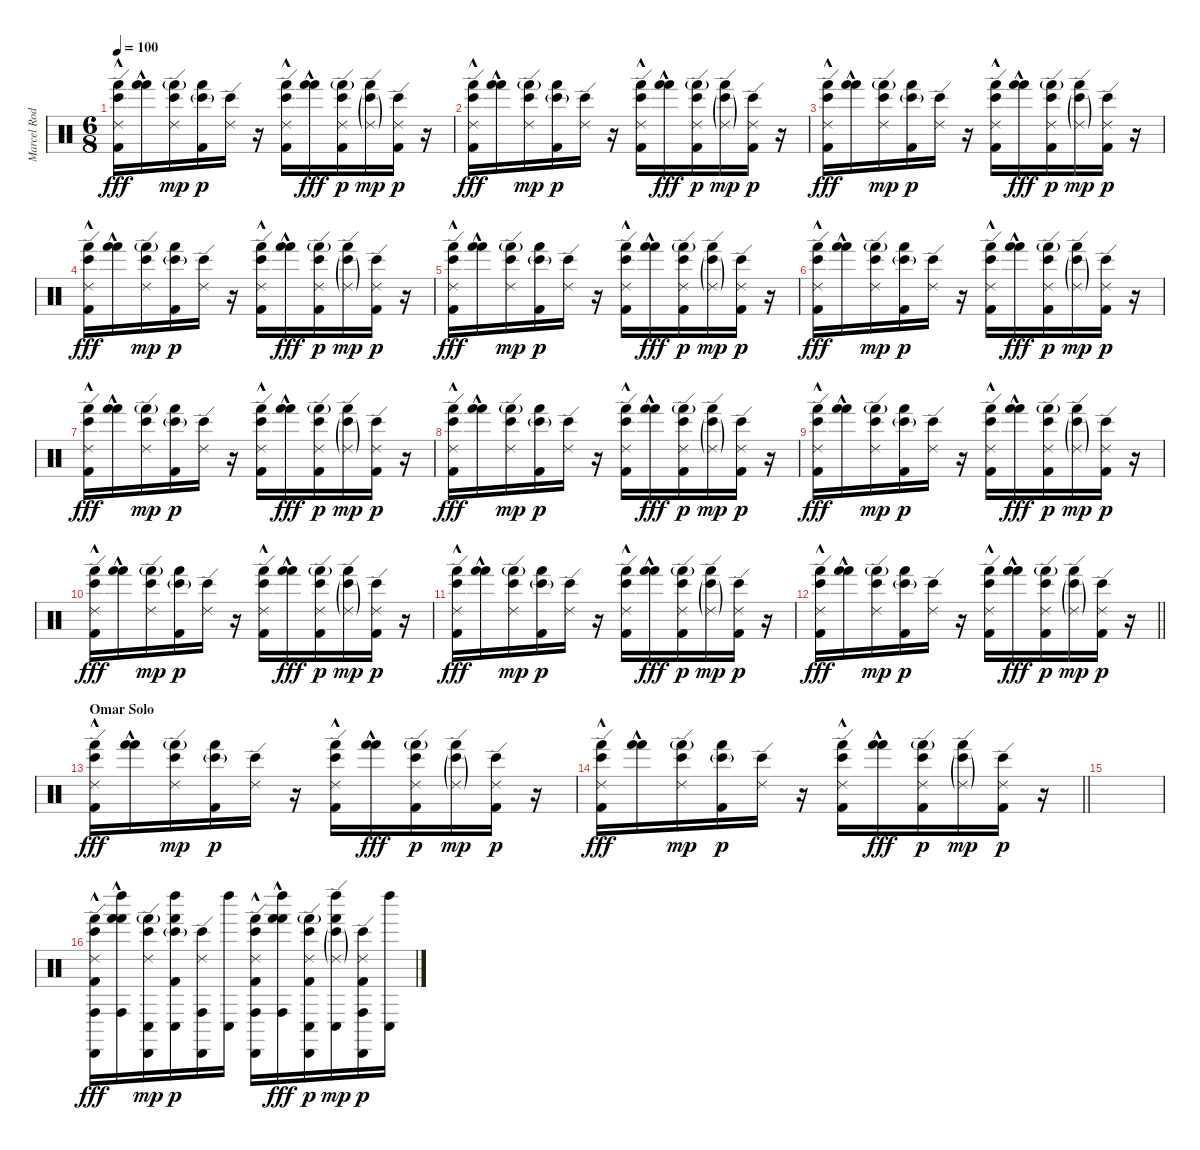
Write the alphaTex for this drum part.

\track ("Marcel Rodriguez & Thomas Pridgen" "Marcel Rod") {instrument percussion}
\staff {score}
\articulation defaults
\ts (6 8)
\tempo 100
\clef neutral
\ks c
("Ride (edge) 2" "Bongo High (hit)" "Hand (hit)"{hac} "Kick (hit) 2").16{dy fff} ("Hand (hit)" "Hand (hit)"{hac}).16 ("Ride (edge) 2" "Bongo High (hit)" "Hand (hit)"{g}).16{dy mp} ("Hand (hit)" "Bongo High (hit)"{g} "Kick (hit) 2").16{dy p} ("Ride (edge) 2" "Bongo High (hit)").16 r.16 ("Ride (edge) 2" "Bongo High (hit)" "Hand (hit)"{hac} "Kick (hit) 2").16 ("Hand (hit)" "Hand (hit)"{hac}).16{dy fff} ("Ride (edge) 2" "Bongo High (hit)" "Hand (hit)"{g} "Kick (hit) 2").16{dy p} ("Ride (edge) 2"{g} "Hand (hit)" "Bongo High (hit)"{g}).16{dy mp} ("Ride (edge) 2" "Bongo High (hit)" "Kick (hit) 2").16{dy p} r.16 |
("Ride (edge) 2" "Bongo High (hit)" "Hand (hit)"{hac} "Kick (hit) 2").16{dy fff} ("Hand (hit)" "Hand (hit)"{hac}).16 ("Ride (edge) 2" "Bongo High (hit)" "Hand (hit)"{g}).16{dy mp} ("Hand (hit)" "Bongo High (hit)"{g} "Kick (hit) 2").16{dy p} ("Ride (edge) 2" "Bongo High (hit)").16 r.16 ("Ride (edge) 2" "Bongo High (hit)" "Hand (hit)"{hac} "Kick (hit) 2").16 ("Hand (hit)" "Hand (hit)"{hac}).16{dy fff} ("Ride (edge) 2" "Bongo High (hit)" "Hand (hit)"{g} "Kick (hit) 2").16{dy p} ("Ride (edge) 2"{g} "Hand (hit)" "Bongo High (hit)"{g}).16{dy mp} ("Ride (edge) 2" "Bongo High (hit)" "Kick (hit) 2").16{dy p} r.16 |
("Ride (edge) 2" "Bongo High (hit)" "Hand (hit)"{hac} "Kick (hit) 2").16{dy fff} ("Hand (hit)" "Hand (hit)"{hac}).16 ("Ride (edge) 2" "Bongo High (hit)" "Hand (hit)"{g}).16{dy mp} ("Hand (hit)" "Bongo High (hit)"{g} "Kick (hit) 2").16{dy p} ("Ride (edge) 2" "Bongo High (hit)").16 r.16 ("Ride (edge) 2" "Bongo High (hit)" "Hand (hit)"{hac} "Kick (hit) 2").16 ("Hand (hit)" "Hand (hit)"{hac}).16{dy fff} ("Ride (edge) 2" "Bongo High (hit)" "Hand (hit)"{g} "Kick (hit) 2").16{dy p} ("Ride (edge) 2"{g} "Hand (hit)" "Bongo High (hit)"{g}).16{dy mp} ("Ride (edge) 2" "Bongo High (hit)" "Kick (hit) 2").16{dy p} r.16 |
("Ride (edge) 2" "Bongo High (hit)" "Hand (hit)"{hac} "Kick (hit) 2").16{dy fff} ("Hand (hit)" "Hand (hit)"{hac}).16 ("Ride (edge) 2" "Bongo High (hit)" "Hand (hit)"{g}).16{dy mp} ("Hand (hit)" "Bongo High (hit)"{g} "Kick (hit) 2").16{dy p} ("Ride (edge) 2" "Bongo High (hit)").16 r.16 ("Ride (edge) 2" "Bongo High (hit)" "Hand (hit)"{hac} "Kick (hit) 2").16 ("Hand (hit)" "Hand (hit)"{hac}).16{dy fff} ("Ride (edge) 2" "Bongo High (hit)" "Hand (hit)"{g} "Kick (hit) 2").16{dy p} ("Ride (edge) 2"{g} "Hand (hit)" "Bongo High (hit)"{g}).16{dy mp} ("Ride (edge) 2" "Bongo High (hit)" "Kick (hit) 2").16{dy p} r.16 |
("Ride (edge) 2" "Bongo High (hit)" "Hand (hit)"{hac} "Kick (hit) 2").16{dy fff} ("Hand (hit)" "Hand (hit)"{hac}).16 ("Ride (edge) 2" "Bongo High (hit)" "Hand (hit)"{g}).16{dy mp} ("Hand (hit)" "Bongo High (hit)"{g} "Kick (hit) 2").16{dy p} ("Ride (edge) 2" "Bongo High (hit)").16 r.16 ("Ride (edge) 2" "Bongo High (hit)" "Hand (hit)"{hac} "Kick (hit) 2").16 ("Hand (hit)" "Hand (hit)"{hac}).16{dy fff} ("Ride (edge) 2" "Bongo High (hit)" "Hand (hit)"{g} "Kick (hit) 2").16{dy p} ("Ride (edge) 2"{g} "Hand (hit)" "Bongo High (hit)"{g}).16{dy mp} ("Ride (edge) 2" "Bongo High (hit)" "Kick (hit) 2").16{dy p} r.16 |
("Ride (edge) 2" "Bongo High (hit)" "Hand (hit)"{hac} "Kick (hit) 2").16{dy fff} ("Hand (hit)" "Hand (hit)"{hac}).16 ("Ride (edge) 2" "Bongo High (hit)" "Hand (hit)"{g}).16{dy mp} ("Hand (hit)" "Bongo High (hit)"{g} "Kick (hit) 2").16{dy p} ("Ride (edge) 2" "Bongo High (hit)").16 r.16 ("Ride (edge) 2" "Bongo High (hit)" "Hand (hit)"{hac} "Kick (hit) 2").16 ("Hand (hit)" "Hand (hit)"{hac}).16{dy fff} ("Ride (edge) 2" "Bongo High (hit)" "Hand (hit)"{g} "Kick (hit) 2").16{dy p} ("Ride (edge) 2"{g} "Hand (hit)" "Bongo High (hit)"{g}).16{dy mp} ("Ride (edge) 2" "Bongo High (hit)" "Kick (hit) 2").16{dy p} r.16 |
("Ride (edge) 2" "Bongo High (hit)" "Hand (hit)"{hac} "Kick (hit) 2").16{dy fff} ("Hand (hit)" "Hand (hit)"{hac}).16 ("Ride (edge) 2" "Bongo High (hit)" "Hand (hit)"{g}).16{dy mp} ("Hand (hit)" "Bongo High (hit)"{g} "Kick (hit) 2").16{dy p} ("Ride (edge) 2" "Bongo High (hit)").16 r.16 ("Ride (edge) 2" "Bongo High (hit)" "Hand (hit)"{hac} "Kick (hit) 2").16 ("Hand (hit)" "Hand (hit)"{hac}).16{dy fff} ("Ride (edge) 2" "Bongo High (hit)" "Hand (hit)"{g} "Kick (hit) 2").16{dy p} ("Ride (edge) 2"{g} "Hand (hit)" "Bongo High (hit)"{g}).16{dy mp} ("Ride (edge) 2" "Bongo High (hit)" "Kick (hit) 2").16{dy p} r.16 |
("Ride (edge) 2" "Bongo High (hit)" "Hand (hit)"{hac} "Kick (hit) 2").16{dy fff} ("Hand (hit)" "Hand (hit)"{hac}).16 ("Ride (edge) 2" "Bongo High (hit)" "Hand (hit)"{g}).16{dy mp} ("Hand (hit)" "Bongo High (hit)"{g} "Kick (hit) 2").16{dy p} ("Ride (edge) 2" "Bongo High (hit)").16 r.16 ("Ride (edge) 2" "Bongo High (hit)" "Hand (hit)"{hac} "Kick (hit) 2").16 ("Hand (hit)" "Hand (hit)"{hac}).16{dy fff} ("Ride (edge) 2" "Bongo High (hit)" "Hand (hit)"{g} "Kick (hit) 2").16{dy p} ("Ride (edge) 2"{g} "Hand (hit)" "Bongo High (hit)"{g}).16{dy mp} ("Ride (edge) 2" "Bongo High (hit)" "Kick (hit) 2").16{dy p} r.16 |
("Ride (edge) 2" "Bongo High (hit)" "Hand (hit)"{hac} "Kick (hit) 2").16{dy fff} ("Hand (hit)" "Hand (hit)"{hac}).16 ("Ride (edge) 2" "Bongo High (hit)" "Hand (hit)"{g}).16{dy mp} ("Hand (hit)" "Bongo High (hit)"{g} "Kick (hit) 2").16{dy p} ("Ride (edge) 2" "Bongo High (hit)").16 r.16 ("Ride (edge) 2" "Bongo High (hit)" "Hand (hit)"{hac} "Kick (hit) 2").16 ("Hand (hit)" "Hand (hit)"{hac}).16{dy fff} ("Ride (edge) 2" "Bongo High (hit)" "Hand (hit)"{g} "Kick (hit) 2").16{dy p} ("Ride (edge) 2"{g} "Hand (hit)" "Bongo High (hit)"{g}).16{dy mp} ("Ride (edge) 2" "Bongo High (hit)" "Kick (hit) 2").16{dy p} r.16 |
("Ride (edge) 2" "Bongo High (hit)" "Hand (hit)"{hac} "Kick (hit) 2").16{dy fff} ("Hand (hit)" "Hand (hit)"{hac}).16 ("Ride (edge) 2" "Bongo High (hit)" "Hand (hit)"{g}).16{dy mp} ("Hand (hit)" "Bongo High (hit)"{g} "Kick (hit) 2").16{dy p} ("Ride (edge) 2" "Bongo High (hit)").16 r.16 ("Ride (edge) 2" "Bongo High (hit)" "Hand (hit)"{hac} "Kick (hit) 2").16 ("Hand (hit)" "Hand (hit)"{hac}).16{dy fff} ("Ride (edge) 2" "Bongo High (hit)" "Hand (hit)"{g} "Kick (hit) 2").16{dy p} ("Ride (edge) 2"{g} "Hand (hit)" "Bongo High (hit)"{g}).16{dy mp} ("Ride (edge) 2" "Bongo High (hit)" "Kick (hit) 2").16{dy p} r.16 |
("Ride (edge) 2" "Bongo High (hit)" "Hand (hit)"{hac} "Kick (hit) 2").16{dy fff} ("Hand (hit)" "Hand (hit)"{hac}).16 ("Ride (edge) 2" "Bongo High (hit)" "Hand (hit)"{g}).16{dy mp} ("Hand (hit)" "Bongo High (hit)"{g} "Kick (hit) 2").16{dy p} ("Ride (edge) 2" "Bongo High (hit)").16 r.16 ("Ride (edge) 2" "Bongo High (hit)" "Hand (hit)"{hac} "Kick (hit) 2").16 ("Hand (hit)" "Hand (hit)"{hac}).16{dy fff} ("Ride (edge) 2" "Bongo High (hit)" "Hand (hit)"{g} "Kick (hit) 2").16{dy p} ("Ride (edge) 2"{g} "Hand (hit)" "Bongo High (hit)"{g}).16{dy mp} ("Ride (edge) 2" "Bongo High (hit)" "Kick (hit) 2").16{dy p} r.16 |
\barLineRight lightlight
("Ride (edge) 2" "Bongo High (hit)" "Hand (hit)"{hac} "Kick (hit) 2").16{dy fff} ("Hand (hit)" "Hand (hit)"{hac}).16 ("Ride (edge) 2" "Bongo High (hit)" "Hand (hit)"{g}).16{dy mp} ("Hand (hit)" "Bongo High (hit)"{g} "Kick (hit) 2").16{dy p} ("Ride (edge) 2" "Bongo High (hit)").16 r.16 ("Ride (edge) 2" "Bongo High (hit)" "Hand (hit)"{hac} "Kick (hit) 2").16 ("Hand (hit)" "Hand (hit)"{hac}).16{dy fff} ("Ride (edge) 2" "Bongo High (hit)" "Hand (hit)"{g} "Kick (hit) 2").16{dy p} ("Ride (edge) 2"{g} "Hand (hit)" "Bongo High (hit)"{g}).16{dy mp} ("Ride (edge) 2" "Bongo High (hit)" "Kick (hit) 2").16{dy p} r.16 |
\section ("" "Omar Solo")
("Ride (edge) 2" "Bongo High (hit)" "Hand (hit)"{hac} "Kick (hit) 2").16{dy fff} ("Hand (hit)" "Hand (hit)"{hac}).16 ("Ride (edge) 2" "Bongo High (hit)" "Hand (hit)"{g}).16{dy mp} ("Hand (hit)" "Bongo High (hit)"{g} "Kick (hit) 2").16{dy p} ("Ride (edge) 2" "Bongo High (hit)").16 r.16 ("Ride (edge) 2" "Bongo High (hit)" "Hand (hit)"{hac} "Kick (hit) 2").16 ("Hand (hit)" "Hand (hit)"{hac}).16{dy fff} ("Ride (edge) 2" "Bongo High (hit)" "Hand (hit)"{g} "Kick (hit) 2").16{dy p} ("Ride (edge) 2"{g} "Hand (hit)" "Bongo High (hit)"{g}).16{dy mp} ("Ride (edge) 2" "Bongo High (hit)" "Kick (hit) 2").16{dy p} r.16 |
\barLineRight lightlight
("Ride (edge) 2" "Bongo High (hit)" "Hand (hit)"{hac} "Kick (hit) 2").16{dy fff} ("Hand (hit)" "Hand (hit)"{hac}).16 ("Ride (edge) 2" "Bongo High (hit)" "Hand (hit)"{g}).16{dy mp} ("Hand (hit)" "Bongo High (hit)"{g} "Kick (hit) 2").16{dy p} ("Ride (edge) 2" "Bongo High (hit)").16 r.16 ("Ride (edge) 2" "Bongo High (hit)" "Hand (hit)"{hac} "Kick (hit) 2").16 ("Hand (hit)" "Hand (hit)"{hac}).16{dy fff} ("Ride (edge) 2" "Bongo High (hit)" "Hand (hit)"{g} "Kick (hit) 2").16{dy p} ("Ride (edge) 2"{g} "Hand (hit)" "Bongo High (hit)"{g}).16{dy mp} ("Ride (edge) 2" "Bongo High (hit)" "Kick (hit) 2").16{dy p} r.16 |
|
("Ride (edge) 2" "Cabasa (hit)" "Bongo High (hit)" "Conga high (hit)" "Hand (hit)"{hac} "Kick (hit) 2").16{dy fff} ("Left Maraca (hit)" "Hand (hit)" "Conga high (hit)" "Hand (hit)"{hac}).16 ("Ride (edge) 2" "Cabasa (hit)" "Bongo High (hit)" "Conga low (hit)" "Hand (hit)"{g}).16{dy mp} ("Left Maraca (hit)" "Hand (hit)" "Conga low (hit)" "Bongo High (hit)"{g} "Kick (hit) 2").16{dy p} ("Ride (edge) 2" "Cabasa (hit)" "Bongo High (hit)" "Conga high (hit)").16 ("Left Maraca (hit)" "Conga low (hit)").16 ("Ride (edge) 2" "Cabasa (hit)" "Bongo High (hit)" "Conga high (hit)" "Hand (hit)"{hac} "Kick (hit) 2").16 ("Left Maraca (hit)" "Hand (hit)" "Conga high (hit)" "Hand (hit)"{hac}).16{dy fff} ("Ride (edge) 2" "Cabasa (hit)" "Bongo High (hit)" "Conga low (hit)" "Hand (hit)"{g} "Kick (hit) 2").16{dy p} ("Ride (edge) 2"{g} "Left Maraca (hit)" "Hand (hit)" "Conga low (hit)" "Bongo High (hit)"{g}).16{dy mp} ("Ride (edge) 2" "Cabasa (hit)" "Bongo High (hit)" "Conga high (hit)" "Kick (hit) 2").16{dy p} ("Left Maraca (hit)" "Conga low (hit)").16
